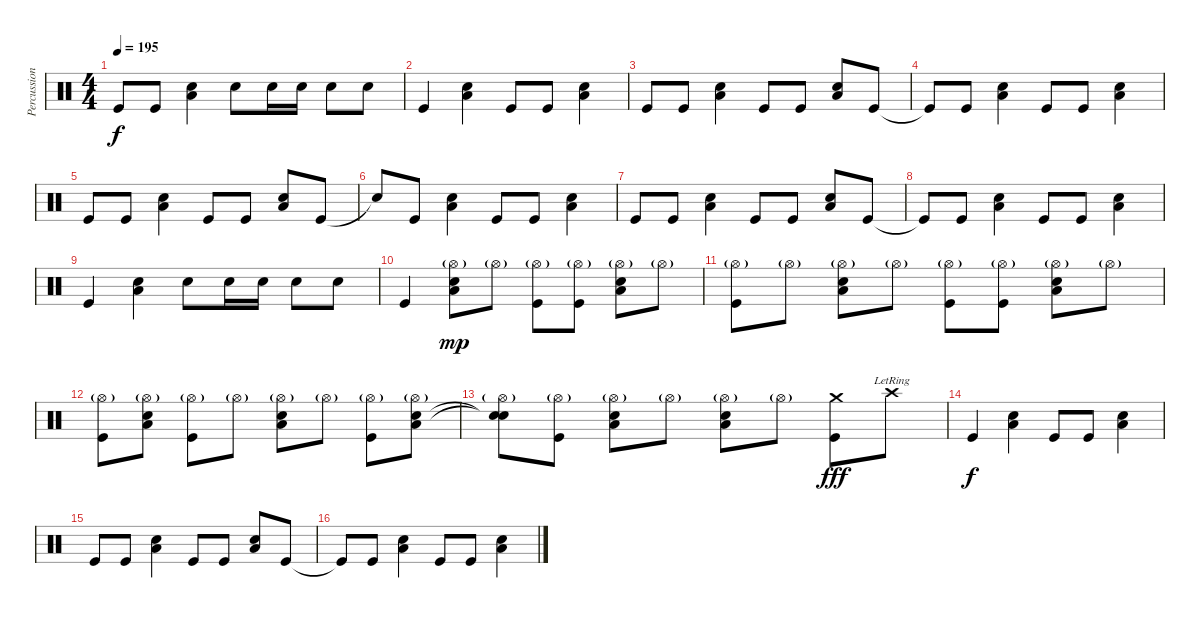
\track ("Percussion" "Percussion") {instrument percussion}
\staff {score}
\articulation defaults
\ts (4 4)
\tempo 195
\clef neutral
\ks c "Kick (hit)".8{dy f} "Kick (hit)".8
("Low Tom (hit)" "Snare (hit) 2").4 "Snare (hit) 2".8 "Snare (hit) 2".16 "Snare (hit) 2".16 "Snare (hit) 2".8 "Snare (hit) 2".8 |
"Kick (hit)".4 ("Low Tom (hit)" "Snare (hit) 2").4 "Kick (hit)".8 "Kick (hit)".8 ("Low Tom (hit)" "Snare (hit) 2").4 |
"Kick (hit)".8 "Kick (hit)".8 ("Low Tom (hit)" "Snare (hit) 2").4 "Kick (hit)".8 "Kick (hit)".8 ("Low Tom (hit)" "Snare (hit) 2").8 "Kick (hit)".8 |
"Kick (hit)"{t}.8 "Kick (hit)".8 ("Low Tom (hit)" "Snare (hit) 2").4 "Kick (hit)".8 "Kick (hit)".8 ("Low Tom (hit)" "Snare (hit) 2").4 |
"Kick (hit)".8 "Kick (hit)".8 ("Low Tom (hit)" "Snare (hit) 2").4 "Kick (hit)".8 "Kick (hit)".8 ("Low Tom (hit)" "Snare (hit) 2").8 "Kick (hit)".8 |
"Snare (hit)"{t}.8 "Kick (hit)".8 ("Low Tom (hit)" "Snare (hit) 2").4 "Kick (hit)".8 "Kick (hit)".8 ("Low Tom (hit)" "Snare (hit) 2").4 |
"Kick (hit)".8 "Kick (hit)".8 ("Low Tom (hit)" "Snare (hit) 2").4 "Kick (hit)".8 "Kick (hit)".8 ("Low Tom (hit)" "Snare (hit) 2").8 "Kick (hit)".8 |
"Kick (hit)"{t}.8 "Kick (hit)".8 ("Low Tom (hit)" "Snare (hit) 2").4 "Kick (hit)".8 "Kick (hit)".8 ("Low Tom (hit)" "Snare (hit) 2").4 |
"Kick (hit)".4 ("Low Tom (hit)" "Snare (hit) 2").4 "Snare (hit) 2".8 "Snare (hit) 2".16 "Snare (hit) 2".16 "Snare (hit) 2".8 "Snare (hit) 2".8 |
"Kick (hit)".4 ("Hi-Hat (open)"{g} "Low Tom (hit)" "Snare (hit) 2").8{dy mp} "Hi-Hat (open)"{g}.8 ("Hi-Hat (open)"{g} "Kick (hit)").8 ("Hi-Hat (open)"{g} "Kick (hit)").8 ("Hi-Hat (open)"{g} "Low Tom (hit)" "Snare (hit) 2").8 "Hi-Hat (open)"{g}.8 |
("Hi-Hat (open)"{g} "Kick (hit)").8 "Hi-Hat (open)"{g}.8 ("Hi-Hat (open)"{g} "Low Tom (hit)" "Snare (hit) 2").8 "Hi-Hat (open)"{g}.8 ("Hi-Hat (open)"{g} "Kick (hit)").8 ("Hi-Hat (open)"{g} "Kick (hit)").8 ("Hi-Hat (open)"{g} "Low Tom (hit)" "Snare (hit) 2").8 "Hi-Hat (open)"{g}.8 |
("Hi-Hat (open)"{g} "Kick (hit)").8 ("Hi-Hat (open)"{g} "Low Tom (hit)" "Snare (hit) 2").8 ("Hi-Hat (open)"{g} "Kick (hit)").8 "Hi-Hat (open)"{g}.8 ("Hi-Hat (open)"{g} "Low Tom (hit)" "Snare (hit) 2").8 "Hi-Hat (open)"{g}.8 ("Hi-Hat (open)"{g} "Kick (hit)").8 ("Hi-Hat (open)"{g} "Low Tom (hit)" "Snare (hit) 2").8 |
("Hi-Hat (open)"{g} "Snare (hit)"{t} "Snare (hit)"{t}).8 ("Hi-Hat (open)"{g} "Kick (hit)").8 ("Hi-Hat (open)"{g} "Low Tom (hit)" "Snare (hit) 2").8 "Hi-Hat (open)"{g}.8 ("Hi-Hat (open)"{g} "Low Tom (hit)" "Snare (hit) 2").8 "Hi-Hat (open)"{g}.8 ("Crash medium (hit)" "Kick (hit)").8{dy fff} "Crash high (hit)"{lr}.8 |
"Kick (hit)".4{dy f} ("Low Tom (hit)" "Snare (hit) 2").4 "Kick (hit)".8 "Kick (hit)".8 ("Low Tom (hit)" "Snare (hit) 2").4 |
"Kick (hit)".8 "Kick (hit)".8 ("Low Tom (hit)" "Snare (hit) 2").4 "Kick (hit)".8 "Kick (hit)".8 ("Low Tom (hit)" "Snare (hit) 2").8 "Kick (hit)".8 |
"Kick (hit)"{t}.8 "Kick (hit)".8 ("Low Tom (hit)" "Snare (hit) 2").4 "Kick (hit)".8 "Kick (hit)".8 ("Low Tom (hit)" "Snare (hit) 2").4
